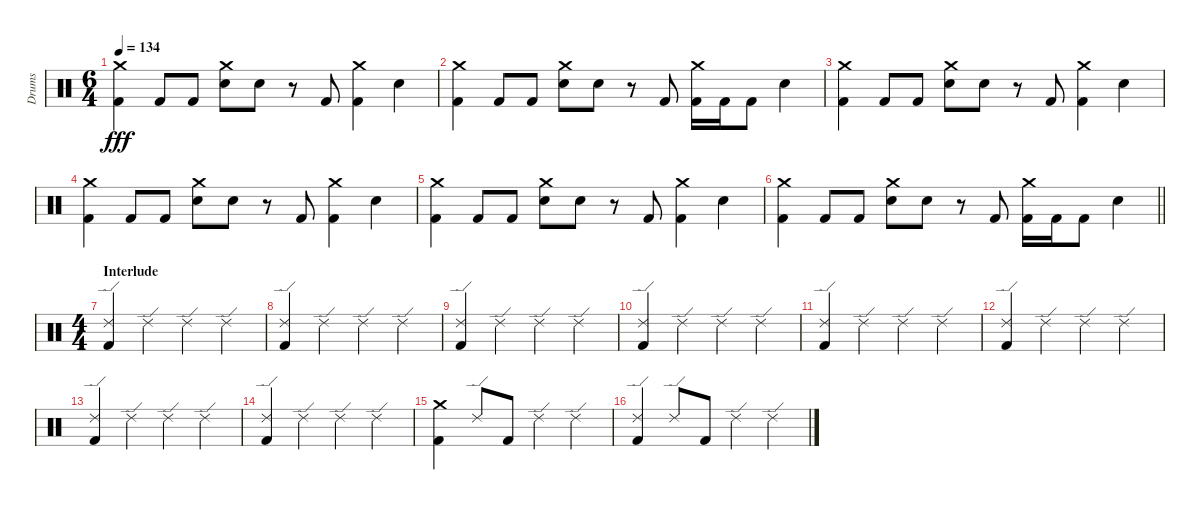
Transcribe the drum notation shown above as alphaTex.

\track ("Drums" "Drums") {instrument percussion}
\staff {score}
\articulation defaults
\ts (6 4)
\tempo 134
\clef neutral
\ks c
("Crash medium (hit)" "Kick (hit) 2").4{dy fff} "Kick (hit) 2".8 "Kick (hit) 2".8 ("Crash medium (hit)" "Electric Snare (hit)").8 "Electric Snare (hit)".8 r.8 "Kick (hit) 2".8 ("Crash medium (hit)" "Kick (hit) 2").4 "Electric Snare (hit)".4 |
("Crash medium (hit)" "Kick (hit) 2").4 "Kick (hit) 2".8 "Kick (hit) 2".8 ("Crash medium (hit)" "Electric Snare (hit)").8 "Electric Snare (hit)".8 r.8 "Kick (hit) 2".8 ("Crash medium (hit)" "Kick (hit) 2").16 "Kick (hit) 2".16 "Kick (hit) 2".8 "Electric Snare (hit)".4 |
("Crash medium (hit)" "Kick (hit) 2").4 "Kick (hit) 2".8 "Kick (hit) 2".8 ("Crash medium (hit)" "Electric Snare (hit)").8 "Electric Snare (hit)".8 r.8 "Kick (hit) 2".8 ("Crash medium (hit)" "Kick (hit) 2").4 "Electric Snare (hit)".4 |
("Crash medium (hit)" "Kick (hit) 2").4 "Kick (hit) 2".8 "Kick (hit) 2".8 ("Crash medium (hit)" "Electric Snare (hit)").8 "Electric Snare (hit)".8 r.8 "Kick (hit) 2".8 ("Crash medium (hit)" "Kick (hit) 2").4 "Electric Snare (hit)".4 |
("Crash medium (hit)" "Kick (hit) 2").4 "Kick (hit) 2".8 "Kick (hit) 2".8 ("Crash medium (hit)" "Electric Snare (hit)").8 "Electric Snare (hit)".8 r.8 "Kick (hit) 2".8 ("Crash medium (hit)" "Kick (hit) 2").4 "Electric Snare (hit)".4 |
\barLineRight lightlight
("Crash medium (hit)" "Kick (hit) 2").4 "Kick (hit) 2".8 "Kick (hit) 2".8 ("Crash medium (hit)" "Electric Snare (hit)").8 "Electric Snare (hit)".8 r.8 "Kick (hit) 2".8 ("Crash medium (hit)" "Kick (hit) 2").16 "Kick (hit) 2".16 "Kick (hit) 2".8 "Electric Snare (hit)".4 |
\ts (4 4)
\section ("" "Interlude")
("Ride (edge) 2" "Kick (hit) 2").4 "Ride (edge) 2".4 "Ride (edge) 2".4 "Ride (edge) 2".4 |
("Ride (edge) 2" "Kick (hit) 2").4 "Ride (edge) 2".4 "Ride (edge) 2".4 "Ride (edge) 2".4 |
("Ride (edge) 2" "Kick (hit) 2").4 "Ride (edge) 2".4 "Ride (edge) 2".4 "Ride (edge) 2".4 |
("Ride (edge) 2" "Kick (hit) 2").4 "Ride (edge) 2".4 "Ride (edge) 2".4 "Ride (edge) 2".4 |
("Ride (edge) 2" "Kick (hit) 2").4 "Ride (edge) 2".4 "Ride (edge) 2".4 "Ride (edge) 2".4 |
("Ride (edge) 2" "Kick (hit) 2").4 "Ride (edge) 2".4 "Ride (edge) 2".4 "Ride (edge) 2".4 |
("Ride (edge) 2" "Kick (hit) 2").4 "Ride (edge) 2".4 "Ride (edge) 2".4 "Ride (edge) 2".4 |
("Ride (edge) 2" "Kick (hit) 2").4 "Ride (edge) 2".4 "Ride (edge) 2".4 "Ride (edge) 2".4 |
("Crash medium (hit)" "Kick (hit) 2").4 "Ride (edge) 2".8 "Kick (hit) 2".8 "Ride (edge) 2".4 "Ride (edge) 2".4 |
("Ride (edge) 2" "Kick (hit) 2").4 "Ride (edge) 2".8 "Kick (hit) 2".8 "Ride (edge) 2".4 "Ride (edge) 2".4
